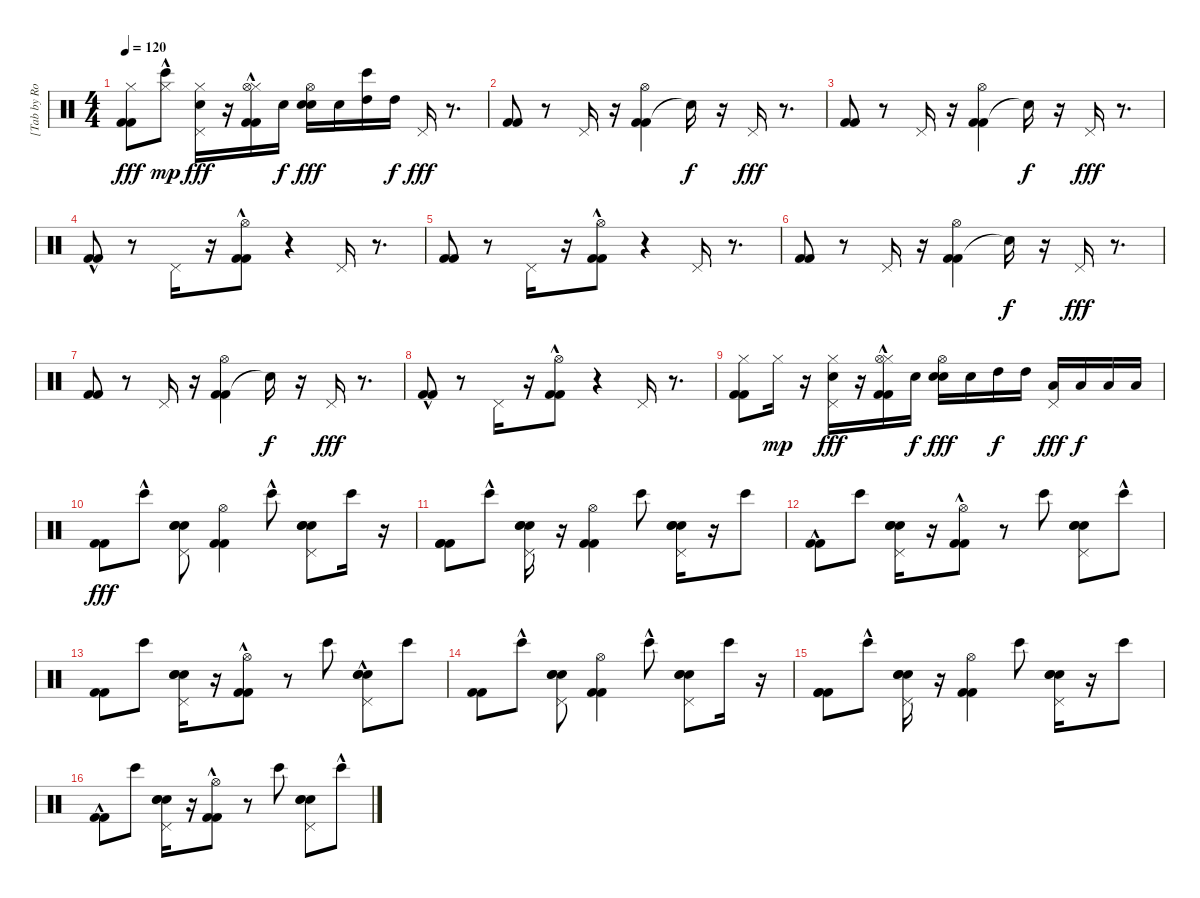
\track ("[Tab by Rodrigo Takahashi]" "[Tab by Ro") {instrument percussion}
\staff {score}
\articulation defaults
\ts (4 4)
\tempo 120
\clef neutral
\ks c
("Hi-Hat (closed)" "Kick (hit) 2" "Kick (hit) 2").8{dy fff} ("Bongo High (hit)"{hac} "Hi-Hat (closed)").8{dy mp} ("Hi-Hat (closed)" "Snare (hit) 2" "Pedal Hi-Hat (hit)").16{dy fff} r.16 ("Hi-Hat (closed)" "Kick (hit) 2"{hac} "Kick (hit) 2"{hac} "Hi-Hat (open)").16 "Snare (hit) 2".16{dy f} ("Snare (hit) 2" "Hi-Hat (open)" "Snare (hit) 2").16{dy fff} "Snare (hit) 2".16 ("High Tom (hit)" "Bongo High (hit)").16 "High Tom (hit)".16{dy f} "Pedal Hi-Hat (hit)".16{dy fff} r.8{d} |
("Kick (hit) 2" "Kick (hit) 2").8 r.8 "Pedal Hi-Hat (hit)".16 r.16 ("Kick (hit) 2" "Kick (hit) 2" "Hi-Hat (open)").4 "Snare (hit)"{t}.16{dy f} r.16 "Pedal Hi-Hat (hit)".16{dy fff} r.8{d} |
("Kick (hit) 2" "Kick (hit) 2").8 r.8 "Pedal Hi-Hat (hit)".16 r.16 ("Kick (hit) 2" "Kick (hit) 2" "Hi-Hat (open)").4 "Snare (hit)"{t}.16{dy f} r.16 "Pedal Hi-Hat (hit)".16{dy fff} r.8{d} |
("Kick (hit) 2"{hac} "Kick (hit) 2"{hac}).8 r.8 "Pedal Hi-Hat (hit)".16 r.16 ("Kick (hit) 2"{hac} "Kick (hit) 2"{hac} "Hi-Hat (open)").8 r.4 "Pedal Hi-Hat (hit)".16 r.8{d} |
("Kick (hit) 2" "Kick (hit) 2").8 r.8 "Pedal Hi-Hat (hit)".16 r.16 ("Kick (hit) 2"{hac} "Kick (hit) 2"{hac} "Hi-Hat (open)").8 r.4 "Pedal Hi-Hat (hit)".16 r.8{d} |
("Kick (hit) 2" "Kick (hit) 2").8 r.8 "Pedal Hi-Hat (hit)".16 r.16 ("Kick (hit) 2" "Kick (hit) 2" "Hi-Hat (open)").4 "Snare (hit)"{t}.16{dy f} r.16 "Pedal Hi-Hat (hit)".16{dy fff} r.8{d} |
("Kick (hit) 2" "Kick (hit) 2").8 r.8 "Pedal Hi-Hat (hit)".16 r.16 ("Kick (hit) 2" "Kick (hit) 2" "Hi-Hat (open)").4 "Snare (hit)"{t}.16{dy f} r.16 "Pedal Hi-Hat (hit)".16{dy fff} r.8{d} |
("Kick (hit) 2"{hac} "Kick (hit) 2"{hac}).8 r.8 "Pedal Hi-Hat (hit)".16 r.16 ("Kick (hit) 2"{hac} "Kick (hit) 2"{hac} "Hi-Hat (open)").8 r.4 "Pedal Hi-Hat (hit)".16 r.8{d} |
("Hi-Hat (closed)" "Kick (hit) 2" "Kick (hit) 2").8 "Hi-Hat (closed)".16{dy mp} r.16 ("Hi-Hat (closed)" "Snare (hit) 2" "Pedal Hi-Hat (hit)").16{dy fff} r.16 ("Hi-Hat (closed)" "Kick (hit) 2"{hac} "Kick (hit) 2"{hac} "Hi-Hat (open)").16 "Snare (hit) 2".16{dy f} ("Snare (hit) 2" "Hi-Hat (open)" "Snare (hit) 2").16{dy fff} "Snare (hit) 2".16 "High Tom (hit)".16{dy f} "High Tom (hit)".16 ("Low Tom (hit)" "Pedal Hi-Hat (hit)").16{dy fff} "Low Tom (hit)".16{dy f} "Low Floor Tom (hit)".16 "Low Floor Tom (hit)".16 |
("Kick (hit) 2" "Kick (hit) 2").8{dy fff} "Bongo High (hit)"{hac}.8 ("Hand Clap (hit)" "Pedal Hi-Hat (hit)" "Electric Snare (hit)" "Snare (hit) 2").8 ("Kick (hit) 2" "Kick (hit) 2" "Hi-Hat (open)").4 "Bongo High (hit)"{hac}.8 ("Pedal Hi-Hat (hit)" "Electric Snare (hit)" "Snare (hit) 2" "Hand Clap (hit)").8 "Bongo High (hit)".16 r.16 |
("Kick (hit) 2" "Kick (hit) 2" "Kick (hit) 2").8 "Bongo High (hit)"{hac}.8 ("Pedal Hi-Hat (hit)" "Electric Snare (hit)" "Snare (hit) 2" "Hand Clap (hit)").16 r.16 ("Kick (hit) 2" "Kick (hit) 2" "Hi-Hat (open)").4 "Bongo High (hit)".8 ("Pedal Hi-Hat (hit)" "Electric Snare (hit)" "Snare (hit) 2" "Hand Clap (hit)").16 r.16 "Bongo High (hit)".8 |
("Kick (hit) 2"{hac} "Kick (hit) 2"{hac}).8 "Bongo High (hit)".8 ("Pedal Hi-Hat (hit)" "Electric Snare (hit)" "Snare (hit) 2" "Hand Clap (hit)").16 r.16 ("Kick (hit) 2"{hac} "Kick (hit) 2"{hac} "Hi-Hat (open)").8 r.8 "Bongo High (hit)".8 ("Snare (hit) 2" "Pedal Hi-Hat (hit)" "Electric Snare (hit)" "Hand Clap (hit)").8 "Bongo High (hit)"{hac}.8 |
("Kick (hit) 2" "Kick (hit) 2").8 "Bongo High (hit)".8 ("Pedal Hi-Hat (hit)" "Electric Snare (hit)" "Snare (hit) 2" "Hand Clap (hit)").16 r.16 ("Kick (hit) 2"{hac} "Kick (hit) 2"{hac} "Hi-Hat (open)").8 r.8 "Bongo High (hit)".8 ("Snare (hit) 2" "Pedal Hi-Hat (hit)" "Electric Snare (hit)"{hac} "Hand Clap (hit)").8 "Bongo High (hit)".8 |
("Kick (hit) 2" "Kick (hit) 2").8 "Bongo High (hit)"{hac}.8 ("Hand Clap (hit)" "Pedal Hi-Hat (hit)" "Electric Snare (hit)" "Snare (hit) 2").8 ("Kick (hit) 2" "Kick (hit) 2" "Hi-Hat (open)").4 "Bongo High (hit)"{hac}.8 ("Pedal Hi-Hat (hit)" "Electric Snare (hit)" "Snare (hit) 2" "Hand Clap (hit)").8 "Bongo High (hit)".16 r.16 |
("Kick (hit) 2" "Kick (hit) 2" "Kick (hit) 2").8 "Bongo High (hit)"{hac}.8 ("Pedal Hi-Hat (hit)" "Electric Snare (hit)" "Snare (hit) 2" "Hand Clap (hit)").16 r.16 ("Kick (hit) 2" "Kick (hit) 2" "Hi-Hat (open)").4 "Bongo High (hit)".8 ("Pedal Hi-Hat (hit)" "Electric Snare (hit)" "Snare (hit) 2" "Hand Clap (hit)").16 r.16 "Bongo High (hit)".8 |
("Kick (hit) 2"{hac} "Kick (hit) 2"{hac}).8 "Bongo High (hit)".8 ("Pedal Hi-Hat (hit)" "Electric Snare (hit)" "Snare (hit) 2" "Hand Clap (hit)").16 r.16 ("Kick (hit) 2"{hac} "Kick (hit) 2"{hac} "Hi-Hat (open)").8 r.8 "Bongo High (hit)".8 ("Snare (hit) 2" "Pedal Hi-Hat (hit)" "Electric Snare (hit)" "Hand Clap (hit)").8 "Bongo High (hit)"{hac}.8
